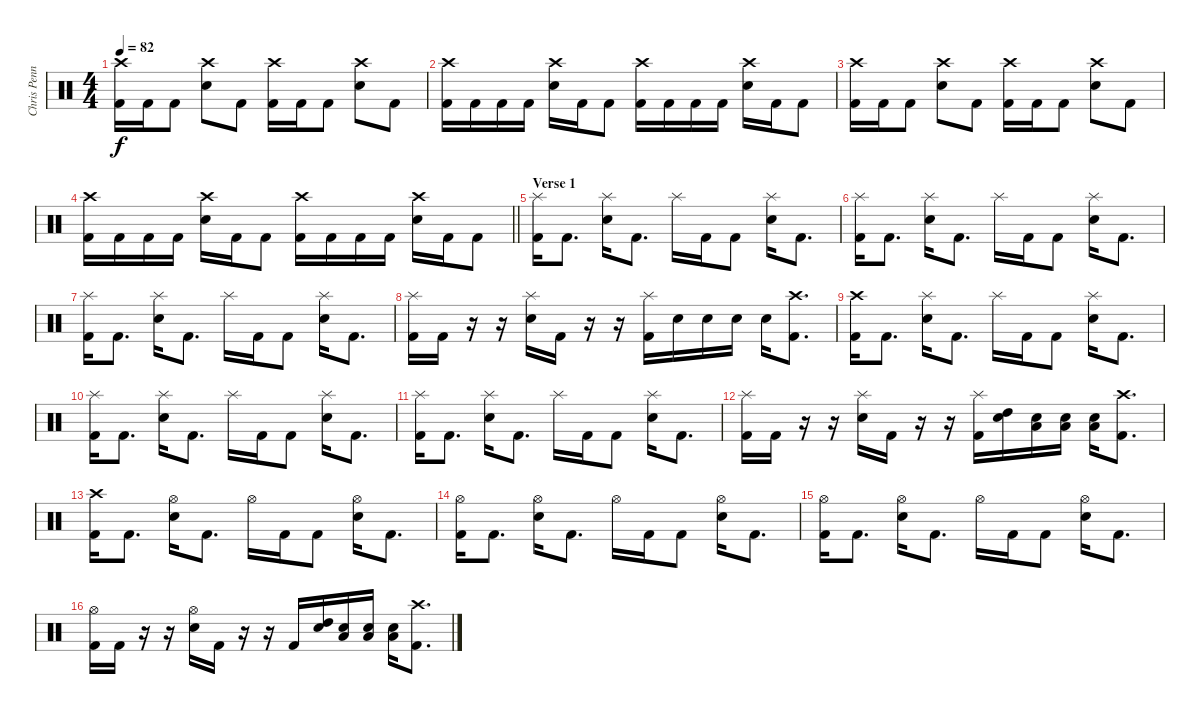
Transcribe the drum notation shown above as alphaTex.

\track ("Chris Pennie" "Chris Penn") {instrument percussion}
\staff {score}
\articulation defaults
\ts (4 4)
\tempo 82
\clef neutral
\ks c
("Crash high (hit)" "Kick (hit) 2").16{dy f} "Kick (hit) 2".16 "Kick (hit) 2".8 ("Crash high (hit)" "Electric Snare (hit)").8 "Kick (hit) 2".8 ("Crash high (hit)" "Kick (hit) 2").16 "Kick (hit) 2".16 "Kick (hit) 2".8 ("Crash high (hit)" "Electric Snare (hit)").8 "Kick (hit) 2".8 |
("Crash high (hit)" "Kick (hit) 2").16 "Kick (hit) 2".16 "Kick (hit) 2".16 "Kick (hit) 2".16 ("Crash high (hit)" "Electric Snare (hit)").16 "Kick (hit) 2".16 "Kick (hit) 2".8 ("Crash high (hit)" "Kick (hit) 2").16 "Kick (hit) 2".16 "Kick (hit) 2".16 "Kick (hit) 2".16 ("Crash high (hit)" "Electric Snare (hit)").16 "Kick (hit) 2".16 "Kick (hit) 2".8 |
("Crash high (hit)" "Kick (hit) 2").16 "Kick (hit) 2".16 "Kick (hit) 2".8 ("Crash high (hit)" "Electric Snare (hit)").8 "Kick (hit) 2".8 ("Crash high (hit)" "Kick (hit) 2").16 "Kick (hit) 2".16 "Kick (hit) 2".8 ("Crash high (hit)" "Electric Snare (hit)").8 "Kick (hit) 2".8 |
\barLineRight lightlight
("Crash high (hit)" "Kick (hit) 2").16 "Kick (hit) 2".16 "Kick (hit) 2".16 "Kick (hit) 2".16 ("Crash high (hit)" "Electric Snare (hit)").16 "Kick (hit) 2".16 "Kick (hit) 2".8 ("Crash high (hit)" "Kick (hit) 2").16 "Kick (hit) 2".16 "Kick (hit) 2".16 "Kick (hit) 2".16 ("Crash high (hit)" "Electric Snare (hit)").16 "Kick (hit) 2".16 "Kick (hit) 2".8 |
\section ("" "Verse 1")
("Splash (hit)" "Kick (hit) 2").16 "Kick (hit) 2".8{d} ("Splash (hit)" "Electric Snare (hit)").16 "Kick (hit) 2".8{d} "Splash (hit)".16 "Kick (hit) 2".16 "Kick (hit) 2".8 ("Splash (hit)" "Electric Snare (hit)").16 "Kick (hit) 2".8{d} |
("Splash (hit)" "Kick (hit) 2").16 "Kick (hit) 2".8{d} ("Splash (hit)" "Electric Snare (hit)").16 "Kick (hit) 2".8{d} "Splash (hit)".16 "Kick (hit) 2".16 "Kick (hit) 2".8 ("Splash (hit)" "Electric Snare (hit)").16 "Kick (hit) 2".8{d} |
("Splash (hit)" "Kick (hit) 2").16 "Kick (hit) 2".8{d} ("Splash (hit)" "Electric Snare (hit)").16 "Kick (hit) 2".8{d} "Splash (hit)".16 "Kick (hit) 2".16 "Kick (hit) 2".8 ("Splash (hit)" "Electric Snare (hit)").16 "Kick (hit) 2".8{d} |
("Splash (hit)" "Kick (hit) 2").16 "Kick (hit) 2".16 r.16 r.16 ("Splash (hit)" "Electric Snare (hit)").16 "Kick (hit) 2".16 r.16 r.16 ("Splash (hit)" "Kick (hit) 2").16 "Electric Snare (hit)".16 "Electric Snare (hit)".16 "Electric Snare (hit)".16 "Electric Snare (hit)".16 ("Crash high (hit)" "Kick (hit) 2").8{d} |
("Crash high (hit)" "Kick (hit) 2").16 "Kick (hit) 2".8{d} ("Splash (hit)" "Electric Snare (hit)").16 "Kick (hit) 2".8{d} "Splash (hit)".16 "Kick (hit) 2".16 "Kick (hit) 2".8 ("Splash (hit)" "Electric Snare (hit)").16 "Kick (hit) 2".8{d} |
("Splash (hit)" "Kick (hit) 2").16 "Kick (hit) 2".8{d} ("Splash (hit)" "Electric Snare (hit)").16 "Kick (hit) 2".8{d} "Splash (hit)".16 "Kick (hit) 2".16 "Kick (hit) 2".8 ("Splash (hit)" "Electric Snare (hit)").16 "Kick (hit) 2".8{d} |
("Splash (hit)" "Kick (hit) 2").16 "Kick (hit) 2".8{d} ("Splash (hit)" "Electric Snare (hit)").16 "Kick (hit) 2".8{d} "Splash (hit)".16 "Kick (hit) 2".16 "Kick (hit) 2".8 ("Splash (hit)" "Electric Snare (hit)").16 "Kick (hit) 2".8{d} |
("Splash (hit)" "Kick (hit) 2").16 "Kick (hit) 2".16 r.16 r.16 ("Splash (hit)" "Electric Snare (hit)").16 "Kick (hit) 2".16 r.16 r.16 ("Splash (hit)" "Kick (hit) 2").16 ("High Tom (hit)" "Electric Snare (hit)").16 ("Electric Snare (hit)" "Low Floor Tom (hit)").16 ("Electric Snare (hit)" "Low Floor Tom (hit)").16 ("Electric Snare (hit)" "Low Floor Tom (hit)").16 ("Crash high (hit)" "Kick (hit) 2").8{d} |
("Crash high (hit)" "Kick (hit) 2").16 "Kick (hit) 2".8{d} ("Hi-Hat (open)" "Electric Snare (hit)").16 "Kick (hit) 2".8{d} "Hi-Hat (open)".16 "Kick (hit) 2".16 "Kick (hit) 2".8 ("Hi-Hat (open)" "Electric Snare (hit)").16 "Kick (hit) 2".8{d} |
("Hi-Hat (open)" "Kick (hit) 2").16 "Kick (hit) 2".8{d} ("Hi-Hat (open)" "Electric Snare (hit)").16 "Kick (hit) 2".8{d} "Hi-Hat (open)".16 "Kick (hit) 2".16 "Kick (hit) 2".8 ("Hi-Hat (open)" "Electric Snare (hit)").16 "Kick (hit) 2".8{d} |
("Hi-Hat (open)" "Kick (hit) 2").16 "Kick (hit) 2".8{d} ("Hi-Hat (open)" "Electric Snare (hit)").16 "Kick (hit) 2".8{d} "Hi-Hat (open)".16 "Kick (hit) 2".16 "Kick (hit) 2".8 ("Hi-Hat (open)" "Electric Snare (hit)").16 "Kick (hit) 2".8{d} |
("Hi-Hat (open)" "Kick (hit) 2").16 "Kick (hit) 2".16 r.16 r.16 ("Hi-Hat (open)" "Electric Snare (hit)").16 "Kick (hit) 2".16 r.16 r.16 "Kick (hit) 2".16 ("High Tom (hit)" "Electric Snare (hit)").16 ("Electric Snare (hit)" "Low Floor Tom (hit)").16 ("Electric Snare (hit)" "Low Floor Tom (hit)").16 ("Electric Snare (hit)" "Low Floor Tom (hit)").16 ("Crash high (hit)" "Kick (hit) 2").8{d}
